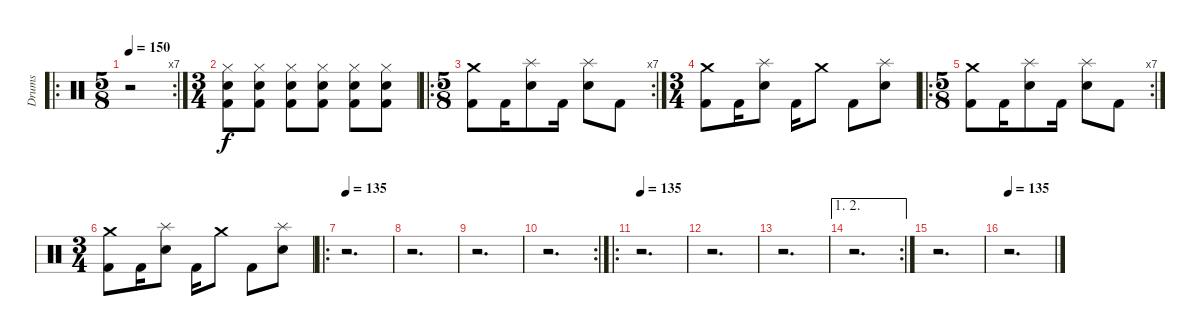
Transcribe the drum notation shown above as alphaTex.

\track ("Drums" "Drums") {instrument percussion}
\staff {score}
\articulation defaults
\ro
\rc 7
\ts (5 8)
\tempo 150
\clef neutral
\ks c
r.2{dy f} |
\ts (3 4)
("Hi-Hat (closed)" "Electric Snare (hit)" "Kick (hit) 2").8 ("Hi-Hat (closed)" "Electric Snare (hit)" "Kick (hit) 2").8 ("Hi-Hat (closed)" "Electric Snare (hit)" "Kick (hit) 2").8 ("Hi-Hat (closed)" "Electric Snare (hit)" "Kick (hit) 2").8 ("Hi-Hat (closed)" "Electric Snare (hit)" "Kick (hit) 2").8 ("Hi-Hat (closed)" "Electric Snare (hit)" "Kick (hit) 2").8 |
\ro
\rc 7
\ts (5 8)
("Crash medium (hit)" "Kick (hit) 2").8 "Kick (hit) 2".16 ("Splash (hit)" "Electric Snare (hit)").8 "Kick (hit) 2".16 ("Splash (hit)" "Electric Snare (hit)").8 "Kick (hit) 2".8 |
\ts (3 4)
("Crash medium (hit)" "Kick (hit) 2").8 "Kick (hit) 2".16 ("Splash (hit)" "Electric Snare (hit)").8 "Kick (hit) 2".16 "Crash medium (hit)".8 "Kick (hit) 2".8 ("Splash (hit)" "Electric Snare (hit)").8 |
\ro
\rc 7
\ts (5 8)
("Crash medium (hit)" "Kick (hit) 2").8 "Kick (hit) 2".16 ("Splash (hit)" "Electric Snare (hit)").8 "Kick (hit) 2".16 ("Splash (hit)" "Electric Snare (hit)").8 "Kick (hit) 2".8 |
\ts (3 4)
("Crash medium (hit)" "Kick (hit) 2").8 "Kick (hit) 2".16 ("Splash (hit)" "Electric Snare (hit)").8 "Kick (hit) 2".16 "Crash medium (hit)".8 "Kick (hit) 2".8 ("Splash (hit)" "Electric Snare (hit)").8 |
\ro
\tempo 135
r.2{d} |
r.2{d} |
r.2{d} |
\rc 2
r.2{d} |
\ro
\tempo 135
r.2{d} |
r.2{d} |
r.2{d} |
\ae (1 2)
\rc 2
r.2{d} |
r.2{d} |
\tempo 135
r.2{d}
